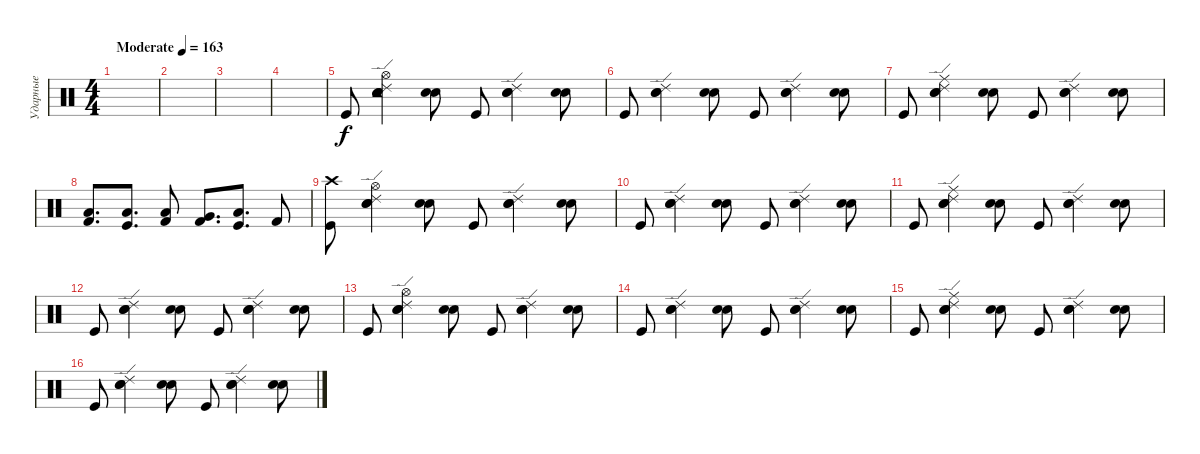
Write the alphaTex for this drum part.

\track ("Ударные" "Ударные") {instrument percussion}
\staff {score}
\articulation defaults
\ts (4 4)
\tempo (163 "Moderate")
\clef neutral
\ks c
|
|
|
|
"Kick (hit)".8 ("Hi-Hat (open)" "Tambourine (hit)" "Snare (hit) 2" "Electric Snare (hit)" "Ride (edge) 2").4 ("Snare (hit) 2" "Electric Snare (hit)").8 "Kick (hit)".8 ("Snare (hit) 2" "Electric Snare (hit)" "Ride (edge) 2").4 ("Snare (hit) 2" "Electric Snare (hit)").8 |
"Kick (hit)".8 ("Snare (hit) 2" "Electric Snare (hit)" "Ride (edge) 2").4 ("Snare (hit) 2" "Electric Snare (hit)").8 "Kick (hit)".8 ("Snare (hit) 2" "Electric Snare (hit)" "Ride (edge) 2").4 ("Snare (hit) 2" "Electric Snare (hit)").8 |
"Kick (hit)".8 ("Ride (middle)" "Snare (hit) 2" "Electric Snare (hit)" "Ride (edge) 2").4 ("Snare (hit) 2" "Electric Snare (hit)").8 "Kick (hit)".8 ("Snare (hit) 2" "Electric Snare (hit)" "Ride (edge) 2").4 ("Snare (hit) 2" "Electric Snare (hit)").8 |
("Low Tom (hit)" "Kick (hit) 2").8{d} ("Low Floor Tom (hit)" "Kick (hit)").8{d} ("Low Tom (hit)" "Kick (hit) 2").8 ("Very Low Tom (hit)" "Kick (hit) 2").8{d} ("Low Floor Tom (hit)" "Kick (hit)").8{d} "Kick (hit) 2".8 |
("Crash high (hit)" "Kick (hit)").8 ("Hi-Hat (open)" "Snare (hit) 2" "Electric Snare (hit)" "Ride (edge) 2").4 ("Snare (hit) 2" "Electric Snare (hit)").8 "Kick (hit)".8 ("Snare (hit) 2" "Electric Snare (hit)" "Ride (edge) 2").4 ("Snare (hit) 2" "Electric Snare (hit)").8 |
"Kick (hit)".8 ("Snare (hit) 2" "Electric Snare (hit)" "Ride (edge) 2").4 ("Snare (hit) 2" "Electric Snare (hit)").8 "Kick (hit)".8 ("Snare (hit) 2" "Electric Snare (hit)" "Ride (edge) 2").4 ("Snare (hit) 2" "Electric Snare (hit)").8 |
"Kick (hit)".8 ("Ride (middle)" "Snare (hit) 2" "Electric Snare (hit)" "Ride (edge) 2").4 ("Snare (hit) 2" "Electric Snare (hit)").8 "Kick (hit)".8 ("Snare (hit) 2" "Electric Snare (hit)" "Ride (edge) 2").4 ("Snare (hit) 2" "Electric Snare (hit)").8 |
"Kick (hit)".8 ("Snare (hit) 2" "Electric Snare (hit)" "Ride (edge) 2").4 ("Snare (hit) 2" "Electric Snare (hit)").8 "Kick (hit)".8 ("Snare (hit) 2" "Electric Snare (hit)" "Ride (edge) 2").4 ("Snare (hit) 2" "Electric Snare (hit)").8 |
"Kick (hit)".8 ("Hi-Hat (open)" "Snare (hit) 2" "Electric Snare (hit)" "Ride (edge) 2").4 ("Snare (hit) 2" "Electric Snare (hit)").8 "Kick (hit)".8 ("Snare (hit) 2" "Electric Snare (hit)" "Ride (edge) 2").4 ("Snare (hit) 2" "Electric Snare (hit)").8 |
"Kick (hit)".8 ("Snare (hit) 2" "Electric Snare (hit)" "Ride (edge) 2").4 ("Snare (hit) 2" "Electric Snare (hit)").8 "Kick (hit)".8 ("Snare (hit) 2" "Electric Snare (hit)" "Ride (edge) 2").4 ("Snare (hit) 2" "Electric Snare (hit)").8 |
"Kick (hit)".8 ("Ride (middle)" "Snare (hit) 2" "Electric Snare (hit)" "Ride (edge) 2").4 ("Snare (hit) 2" "Electric Snare (hit)").8 "Kick (hit)".8 ("Snare (hit) 2" "Electric Snare (hit)" "Ride (edge) 2").4 ("Snare (hit) 2" "Electric Snare (hit)").8 |
"Kick (hit)".8 ("Snare (hit) 2" "Electric Snare (hit)" "Ride (edge) 2").4 ("Snare (hit) 2" "Electric Snare (hit)").8 "Kick (hit)".8 ("Snare (hit) 2" "Electric Snare (hit)" "Ride (edge) 2").4 ("Snare (hit) 2" "Electric Snare (hit)").8
